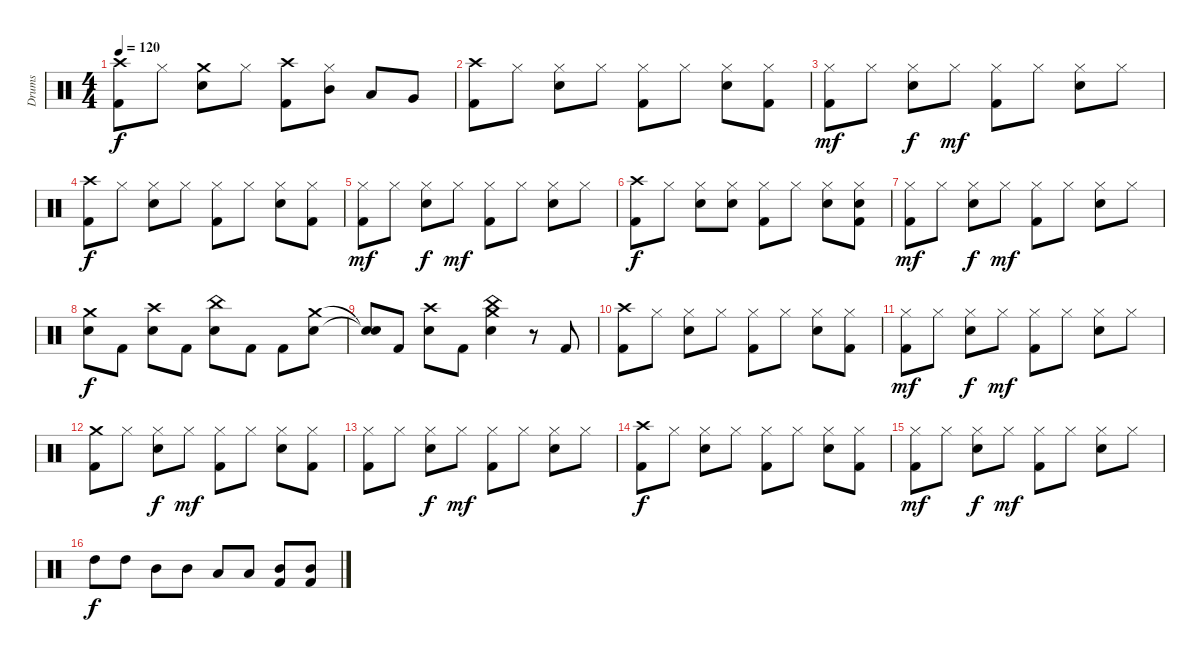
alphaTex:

\track ("Drums" "Drums") {instrument percussion}
\staff {score}
\articulation defaults
\ts (4 4)
\tempo 120
\clef neutral
\ks c
("Crash high (hit)" "Kick (hit) 2").8{dy f} "Hi-Hat (closed)".8 ("Crash medium (hit)" "Snare (hit) 2").8 "Hi-Hat (closed)".8 ("Crash high (hit)" "Kick (hit) 2").8 ("Hi-Hat (closed)" "Mid Tom (hit)").8 "Low Tom (hit)".8 "Very Low Tom (hit)".8 |
("Crash high (hit)" "Kick (hit) 2").8 "Hi-Hat (closed)".8 ("Hi-Hat (closed)" "Snare (hit) 2").8 "Hi-Hat (closed)".8 ("Hi-Hat (closed)" "Kick (hit) 2").8 "Hi-Hat (closed)".8 ("Hi-Hat (closed)" "Snare (hit) 2").8 ("Hi-Hat (closed)" "Kick (hit) 2").8 |
("Hi-Hat (closed)" "Kick (hit) 2").8{dy mf} "Hi-Hat (closed)".8 ("Hi-Hat (closed)" "Snare (hit) 2").8{dy f} "Hi-Hat (closed)".8{dy mf} ("Hi-Hat (closed)" "Kick (hit) 2").8 "Hi-Hat (closed)".8 ("Hi-Hat (closed)" "Snare (hit) 2").8 "Hi-Hat (closed)".8 |
("Crash high (hit)" "Kick (hit) 2").8{dy f} "Hi-Hat (closed)".8 ("Hi-Hat (closed)" "Snare (hit) 2").8 "Hi-Hat (closed)".8 ("Hi-Hat (closed)" "Kick (hit) 2").8 "Hi-Hat (closed)".8 ("Hi-Hat (closed)" "Snare (hit) 2").8 ("Hi-Hat (closed)" "Kick (hit) 2").8 |
("Hi-Hat (closed)" "Kick (hit) 2").8{dy mf} "Hi-Hat (closed)".8 ("Hi-Hat (closed)" "Snare (hit) 2").8{dy f} "Hi-Hat (closed)".8{dy mf} ("Hi-Hat (closed)" "Kick (hit) 2").8 "Hi-Hat (closed)".8 ("Hi-Hat (closed)" "Snare (hit) 2").8 "Hi-Hat (closed)".8 |
("Crash high (hit)" "Kick (hit) 2").8{dy f} "Hi-Hat (closed)".8 ("Hi-Hat (closed)" "Snare (hit) 2").8 ("Hi-Hat (closed)" "Snare (hit) 2").8 ("Hi-Hat (closed)" "Kick (hit) 2").8 "Hi-Hat (closed)".8 ("Hi-Hat (closed)" "Snare (hit) 2").8 ("Hi-Hat (closed)" "Snare (hit) 2" "Kick (hit) 2").8 |
("Hi-Hat (closed)" "Kick (hit) 2").8{dy mf} "Hi-Hat (closed)".8 ("Hi-Hat (closed)" "Snare (hit) 2").8{dy f} "Hi-Hat (closed)".8{dy mf} ("Hi-Hat (closed)" "Kick (hit) 2").8 "Hi-Hat (closed)".8 ("Hi-Hat (closed)" "Snare (hit) 2").8 "Hi-Hat (closed)".8 |
("Crash medium (hit)" "Snare (hit) 2").8{dy f} "Kick (hit) 2".8 ("Crash high (hit)" "Snare (hit) 2").8 "Kick (hit) 2".8 ("China (hit)" "Snare (hit) 2").8 "Kick (hit) 2".8 "Kick (hit) 2".8 ("Crash medium (hit)" "Snare (hit) 2").8 |
("Snare (hit)"{t} "Snare (hit)"{t}).8 "Kick (hit) 2".8 ("Crash high (hit)" "Snare (hit) 2").8 "Kick (hit) 2".8 ("China (hit)" "Crash medium (hit)" "Snare (hit) 2").4 r.8 "Kick (hit) 2".8 |
("Crash high (hit)" "Kick (hit) 2").8 "Hi-Hat (closed)".8 ("Hi-Hat (closed)" "Snare (hit) 2").8 "Hi-Hat (closed)".8 ("Hi-Hat (closed)" "Kick (hit) 2").8 "Hi-Hat (closed)".8 ("Hi-Hat (closed)" "Snare (hit) 2").8 ("Hi-Hat (closed)" "Kick (hit) 2").8 |
("Hi-Hat (closed)" "Kick (hit) 2").8{dy mf} "Hi-Hat (closed)".8 ("Hi-Hat (closed)" "Snare (hit) 2").8{dy f} "Hi-Hat (closed)".8{dy mf} ("Hi-Hat (closed)" "Kick (hit) 2").8 "Hi-Hat (closed)".8 ("Hi-Hat (closed)" "Snare (hit) 2").8 "Hi-Hat (closed)".8 |
("Crash medium (hit)" "Kick (hit) 2").8 "Hi-Hat (closed)".8 ("Hi-Hat (closed)" "Snare (hit) 2").8{dy f} "Hi-Hat (closed)".8{dy mf} ("Hi-Hat (closed)" "Kick (hit) 2").8 "Hi-Hat (closed)".8 ("Hi-Hat (closed)" "Snare (hit) 2").8 ("Hi-Hat (closed)" "Kick (hit) 2").8 |
("Hi-Hat (closed)" "Kick (hit) 2").8 "Hi-Hat (closed)".8 ("Hi-Hat (closed)" "Snare (hit) 2").8{dy f} "Hi-Hat (closed)".8{dy mf} ("Hi-Hat (closed)" "Kick (hit) 2").8 "Hi-Hat (closed)".8 ("Hi-Hat (closed)" "Snare (hit) 2").8 "Hi-Hat (closed)".8 |
("Crash high (hit)" "Kick (hit) 2").8{dy f} "Hi-Hat (closed)".8 ("Hi-Hat (closed)" "Snare (hit) 2").8 "Hi-Hat (closed)".8 ("Hi-Hat (closed)" "Kick (hit) 2").8 "Hi-Hat (closed)".8 ("Hi-Hat (closed)" "Snare (hit) 2").8 ("Hi-Hat (closed)" "Kick (hit) 2").8 |
("Hi-Hat (closed)" "Kick (hit) 2").8{dy mf} "Hi-Hat (closed)".8 ("Hi-Hat (closed)" "Snare (hit) 2").8{dy f} "Hi-Hat (closed)".8{dy mf} ("Hi-Hat (closed)" "Kick (hit) 2").8 "Hi-Hat (closed)".8 ("Hi-Hat (closed)" "Snare (hit) 2").8 "Hi-Hat (closed)".8 |
"High Tom (hit)".8{dy f} "High Tom (hit)".8 "Mid Tom (hit)".8 "Mid Tom (hit)".8 "Low Tom (hit)".8 "Low Tom (hit)".8 ("Mid Tom (hit)" "Kick (hit) 2").8 ("Mid Tom (hit)" "Kick (hit) 2").8
